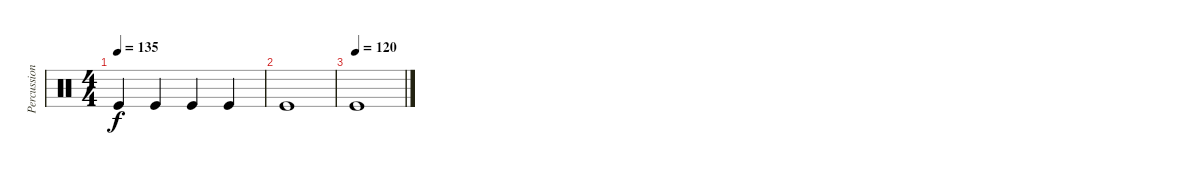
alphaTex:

\track ("Percussion" "Percussion") {instrument percussion}
\staff {score}
\articulation defaults
\ts (4 4)
\tempo 135
\clef neutral
\ks c "Kick (hit)".4{dy f} "Kick (hit)".4 "Kick (hit)".4 "Kick (hit)".4
|
"Kick (hit)".1 |
\tempo (120)
"Kick (hit)".1
